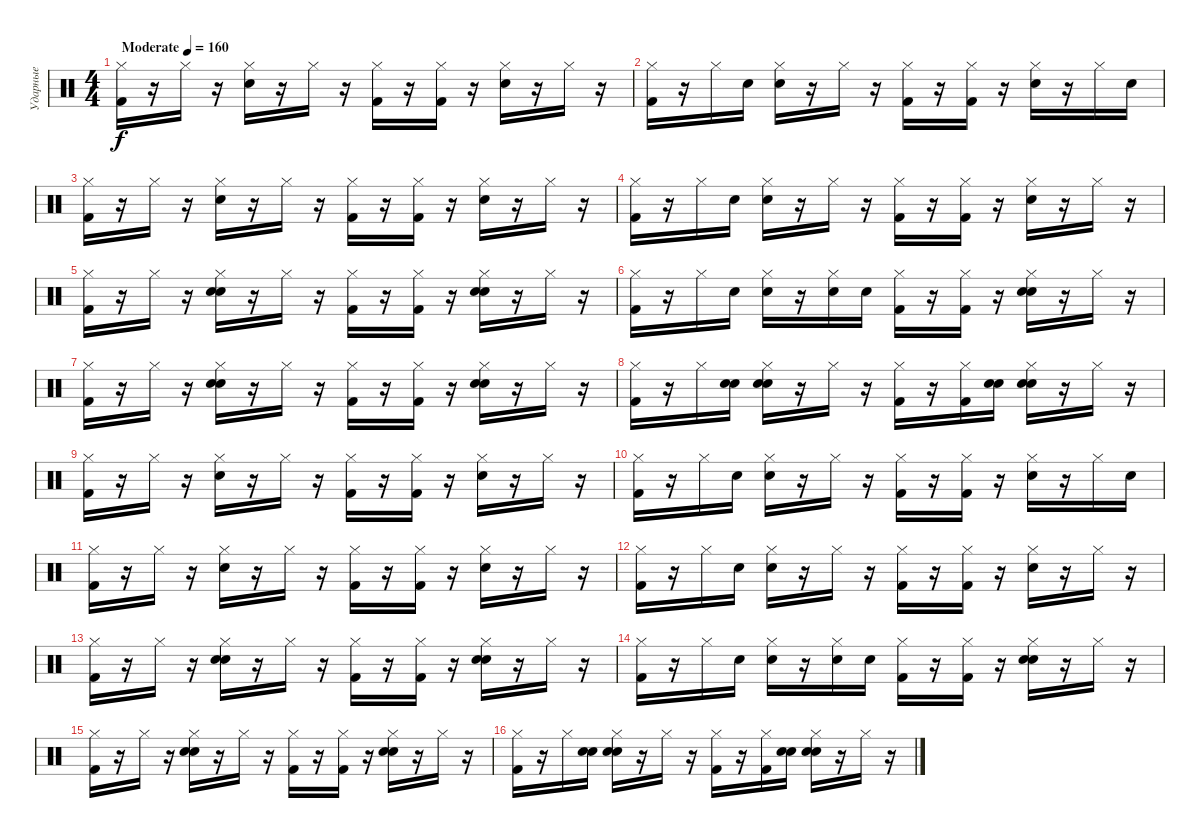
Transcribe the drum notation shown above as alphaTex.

\track ("Ударные" "Ударные") {instrument percussion}
\staff {score}
\articulation defaults
\ts (4 4)
\tempo (160 "Moderate")
\clef neutral
\ks c
("Hi-Hat (closed)" "Kick (hit) 2").16{dy f} r.16 "Hi-Hat (closed)".16 r.16 ("Hi-Hat (closed)" "Snare (hit) 2").16 r.16 "Hi-Hat (closed)".16 r.16 ("Hi-Hat (closed)" "Kick (hit) 2").16 r.16 ("Hi-Hat (closed)" "Kick (hit) 2").16 r.16 ("Hi-Hat (closed)" "Snare (hit) 2").16 r.16 "Hi-Hat (closed)".16 r.16 |
("Hi-Hat (closed)" "Kick (hit) 2").16 r.16 "Hi-Hat (closed)".16 "Snare (hit) 2".16 ("Hi-Hat (closed)" "Snare (hit) 2").16 r.16 "Hi-Hat (closed)".16 r.16 ("Hi-Hat (closed)" "Kick (hit) 2").16 r.16 ("Hi-Hat (closed)" "Kick (hit) 2").16 r.16 ("Hi-Hat (closed)" "Snare (hit) 2").16 r.16 "Hi-Hat (closed)".16 "Snare (hit) 2".16 |
("Hi-Hat (closed)" "Kick (hit) 2").16 r.16 "Hi-Hat (closed)".16 r.16 ("Hi-Hat (closed)" "Snare (hit) 2").16 r.16 "Hi-Hat (closed)".16 r.16 ("Hi-Hat (closed)" "Kick (hit) 2").16 r.16 ("Hi-Hat (closed)" "Kick (hit) 2").16 r.16 ("Hi-Hat (closed)" "Snare (hit) 2").16 r.16 "Hi-Hat (closed)".16 r.16 |
("Hi-Hat (closed)" "Kick (hit) 2").16 r.16 "Hi-Hat (closed)".16 "Snare (hit) 2".16 ("Hi-Hat (closed)" "Snare (hit) 2").16 r.16 "Hi-Hat (closed)".16 r.16 ("Hi-Hat (closed)" "Kick (hit) 2").16 r.16 ("Hi-Hat (closed)" "Kick (hit) 2").16 r.16 ("Hi-Hat (closed)" "Snare (hit) 2").16 r.16 "Hi-Hat (closed)".16 r.16 |
("Hi-Hat (closed)" "Kick (hit) 2").16 r.16 "Hi-Hat (closed)".16 r.16 ("Hi-Hat (closed)" "Snare (hit) 2" "Hand Clap (hit)").16 r.16 "Hi-Hat (closed)".16 r.16 ("Hi-Hat (closed)" "Kick (hit) 2").16 r.16 ("Hi-Hat (closed)" "Kick (hit) 2").16 r.16 ("Hi-Hat (closed)" "Snare (hit) 2" "Hand Clap (hit)").16 r.16 "Hi-Hat (closed)".16 r.16 |
("Hi-Hat (closed)" "Kick (hit) 2").16 r.16 "Hi-Hat (closed)".16 "Snare (hit) 2".16 ("Hi-Hat (closed)" "Snare (hit) 2").16 r.16 ("Hi-Hat (closed)" "Snare (hit) 2").16 "Snare (hit) 2".16 ("Hi-Hat (closed)" "Kick (hit) 2").16 r.16 ("Hi-Hat (closed)" "Kick (hit) 2").16 r.16 ("Hi-Hat (closed)" "Snare (hit) 2" "Hand Clap (hit)").16 r.16 "Hi-Hat (closed)".16 r.16 |
("Hi-Hat (closed)" "Kick (hit) 2").16 r.16 "Hi-Hat (closed)".16 r.16 ("Hi-Hat (closed)" "Snare (hit) 2" "Hand Clap (hit)").16 r.16 "Hi-Hat (closed)".16 r.16 ("Hi-Hat (closed)" "Kick (hit) 2").16 r.16 ("Hi-Hat (closed)" "Kick (hit) 2").16 r.16 ("Hi-Hat (closed)" "Snare (hit) 2" "Hand Clap (hit)").16 r.16 "Hi-Hat (closed)".16 r.16 |
("Hi-Hat (closed)" "Kick (hit) 2").16 r.16 "Hi-Hat (closed)".16 ("Snare (hit) 2" "Hand Clap (hit)").16 ("Hi-Hat (closed)" "Snare (hit) 2" "Hand Clap (hit)").16 r.16 "Hi-Hat (closed)".16 r.16 ("Hi-Hat (closed)" "Kick (hit) 2").16 r.16 ("Hi-Hat (closed)" "Kick (hit) 2").16 ("Snare (hit) 2" "Hand Clap (hit)").16 ("Hi-Hat (closed)" "Snare (hit) 2" "Hand Clap (hit)").16 r.16 "Hi-Hat (closed)".16 r.16 |
("Hi-Hat (closed)" "Kick (hit) 2").16 r.16 "Hi-Hat (closed)".16 r.16 ("Hi-Hat (closed)" "Snare (hit) 2").16 r.16 "Hi-Hat (closed)".16 r.16 ("Hi-Hat (closed)" "Kick (hit) 2").16 r.16 ("Hi-Hat (closed)" "Kick (hit) 2").16 r.16 ("Hi-Hat (closed)" "Snare (hit) 2").16 r.16 "Hi-Hat (closed)".16 r.16 |
("Hi-Hat (closed)" "Kick (hit) 2").16 r.16 "Hi-Hat (closed)".16 "Snare (hit) 2".16 ("Hi-Hat (closed)" "Snare (hit) 2").16 r.16 "Hi-Hat (closed)".16 r.16 ("Hi-Hat (closed)" "Kick (hit) 2").16 r.16 ("Hi-Hat (closed)" "Kick (hit) 2").16 r.16 ("Hi-Hat (closed)" "Snare (hit) 2").16 r.16 "Hi-Hat (closed)".16 "Snare (hit) 2".16 |
("Hi-Hat (closed)" "Kick (hit) 2").16 r.16 "Hi-Hat (closed)".16 r.16 ("Hi-Hat (closed)" "Snare (hit) 2").16 r.16 "Hi-Hat (closed)".16 r.16 ("Hi-Hat (closed)" "Kick (hit) 2").16 r.16 ("Hi-Hat (closed)" "Kick (hit) 2").16 r.16 ("Hi-Hat (closed)" "Snare (hit) 2").16 r.16 "Hi-Hat (closed)".16 r.16 |
("Hi-Hat (closed)" "Kick (hit) 2").16 r.16 "Hi-Hat (closed)".16 "Snare (hit) 2".16 ("Hi-Hat (closed)" "Snare (hit) 2").16 r.16 "Hi-Hat (closed)".16 r.16 ("Hi-Hat (closed)" "Kick (hit) 2").16 r.16 ("Hi-Hat (closed)" "Kick (hit) 2").16 r.16 ("Hi-Hat (closed)" "Snare (hit) 2").16 r.16 "Hi-Hat (closed)".16 r.16 |
("Hi-Hat (closed)" "Kick (hit) 2").16 r.16 "Hi-Hat (closed)".16 r.16 ("Hi-Hat (closed)" "Snare (hit) 2" "Hand Clap (hit)").16 r.16 "Hi-Hat (closed)".16 r.16 ("Hi-Hat (closed)" "Kick (hit) 2").16 r.16 ("Hi-Hat (closed)" "Kick (hit) 2").16 r.16 ("Hi-Hat (closed)" "Snare (hit) 2" "Hand Clap (hit)").16 r.16 "Hi-Hat (closed)".16 r.16 |
("Hi-Hat (closed)" "Kick (hit) 2").16 r.16 "Hi-Hat (closed)".16 "Snare (hit) 2".16 ("Hi-Hat (closed)" "Snare (hit) 2").16 r.16 ("Hi-Hat (closed)" "Snare (hit) 2").16 "Snare (hit) 2".16 ("Hi-Hat (closed)" "Kick (hit) 2").16 r.16 ("Hi-Hat (closed)" "Kick (hit) 2").16 r.16 ("Hi-Hat (closed)" "Snare (hit) 2" "Hand Clap (hit)").16 r.16 "Hi-Hat (closed)".16 r.16 |
("Hi-Hat (closed)" "Kick (hit) 2").16 r.16 "Hi-Hat (closed)".16 r.16 ("Hi-Hat (closed)" "Snare (hit) 2" "Hand Clap (hit)").16 r.16 "Hi-Hat (closed)".16 r.16 ("Hi-Hat (closed)" "Kick (hit) 2").16 r.16 ("Hi-Hat (closed)" "Kick (hit) 2").16 r.16 ("Hi-Hat (closed)" "Snare (hit) 2" "Hand Clap (hit)").16 r.16 "Hi-Hat (closed)".16 r.16 |
("Hi-Hat (closed)" "Kick (hit) 2").16 r.16 "Hi-Hat (closed)".16 ("Snare (hit) 2" "Hand Clap (hit)").16 ("Hi-Hat (closed)" "Snare (hit) 2" "Hand Clap (hit)").16 r.16 "Hi-Hat (closed)".16 r.16 ("Hi-Hat (closed)" "Kick (hit) 2").16 r.16 ("Hi-Hat (closed)" "Kick (hit) 2").16 ("Snare (hit) 2" "Hand Clap (hit)").16 ("Hi-Hat (closed)" "Snare (hit) 2" "Hand Clap (hit)").16 r.16 "Hi-Hat (closed)".16 r.16
